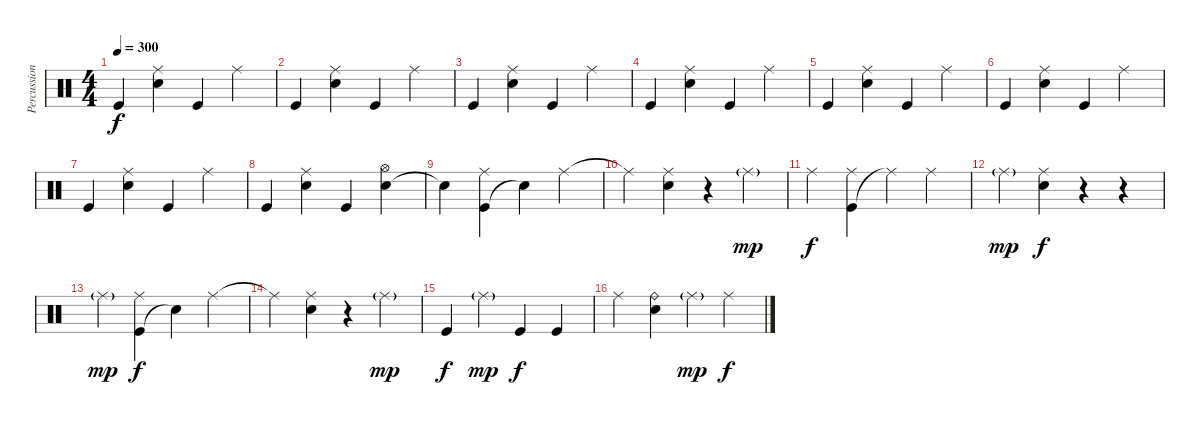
\track ("Percussion" "Percussion") {instrument percussion}
\staff {score}
\articulation defaults
\ts (4 4)
\tempo 300
\clef neutral
\ks c "Kick (hit)".4{dy f}
("Electric Snare (hit)" "Ride (middle)").4 "Kick (hit)".4 "Ride (middle)".4 |
"Kick (hit)".4 ("Electric Snare (hit)" "Ride (middle)").4 "Kick (hit)".4 "Ride (middle)".4 |
"Kick (hit)".4 ("Electric Snare (hit)" "Ride (middle)").4 "Kick (hit)".4 "Ride (middle)".4 |
"Kick (hit)".4 ("Electric Snare (hit)" "Ride (middle)").4 "Kick (hit)".4 "Ride (middle)".4 |
"Kick (hit)".4 ("Electric Snare (hit)" "Ride (middle)").4 "Kick (hit)".4 "Ride (middle)".4 |
"Kick (hit)".4 ("Electric Snare (hit)" "Ride (middle)").4 "Kick (hit)".4 "Ride (middle)".4 |
"Kick (hit)".4 ("Electric Snare (hit)" "Ride (middle)").4 "Kick (hit)".4 "Ride (middle)".4 |
"Kick (hit)".4 ("Electric Snare (hit)" "Ride (middle)").4 "Kick (hit)".4 ("Electric Snare (hit)" "Hi-Hat (open)").4 |
"Snare (hit)"{t}.4 ("Kick (hit)" "Ride (middle)").4 "Snare (hit)"{t}.4 "Ride (middle)".4 |
"Ride (middle)"{t}.4 ("Electric Snare (hit)" "Ride (middle)").4 r.4 "Ride (middle)"{g}.4{dy mp} |
"Ride (middle)".4{dy f} ("Kick (hit)" "Ride (middle)").4 "Ride (middle)"{t}.4 "Ride (middle)".4 |
"Ride (middle)"{g}.4{dy mp} ("Electric Snare (hit)" "Ride (middle)").4{dy f} r.4 r.4 |
"Ride (middle)"{g}.4{dy mp} ("Kick (hit)" "Ride (middle)").4{dy f} "Snare (hit)"{t}.4 "Ride (middle)".4 |
"Ride (middle)"{t}.4 ("Electric Snare (hit)" "Ride (middle)").4 r.4 "Ride (middle)"{g}.4{dy mp} |
"Kick (hit)".4{dy f} "Ride (middle)"{g}.4{dy mp} "Kick (hit)".4{dy f} "Kick (hit)".4 |
"Ride (middle)".4 ("Electric Snare (hit)" "Ride (bell)").4 "Ride (middle)"{g}.4{dy mp} "Ride (middle)".4{dy f}
